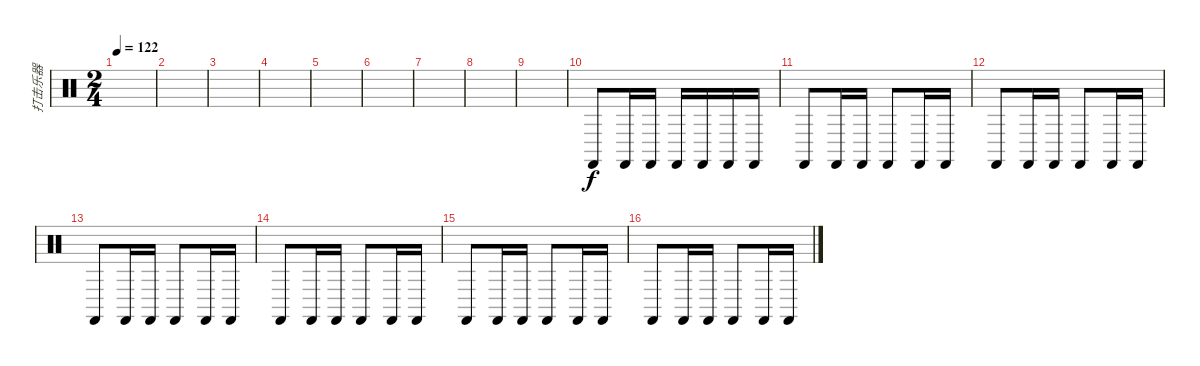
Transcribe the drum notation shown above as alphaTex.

\track ("打击乐器" "打击乐器") {instrument percussion}
\staff {score}
\articulation defaults
\ts (2 4)
\tempo 122
\clef neutral
\ks c
|
|
|
|
|
|
|
|
|
"Castanets (hit)".8 "Castanets (hit)".16 "Castanets (hit)".16 "Castanets (hit)".16 "Castanets (hit)".16 "Castanets (hit)".16 "Castanets (hit)".16 |
"Castanets (hit)".8 "Castanets (hit)".16 "Castanets (hit)".16 "Castanets (hit)".8 "Castanets (hit)".16 "Castanets (hit)".16 |
"Castanets (hit)".8 "Castanets (hit)".16 "Castanets (hit)".16 "Castanets (hit)".8 "Castanets (hit)".16 "Castanets (hit)".16 |
"Castanets (hit)".8 "Castanets (hit)".16 "Castanets (hit)".16 "Castanets (hit)".8 "Castanets (hit)".16 "Castanets (hit)".16 |
"Castanets (hit)".8 "Castanets (hit)".16 "Castanets (hit)".16 "Castanets (hit)".8 "Castanets (hit)".16 "Castanets (hit)".16 |
"Castanets (hit)".8 "Castanets (hit)".16 "Castanets (hit)".16 "Castanets (hit)".8 "Castanets (hit)".16 "Castanets (hit)".16 |
"Castanets (hit)".8 "Castanets (hit)".16 "Castanets (hit)".16 "Castanets (hit)".8 "Castanets (hit)".16 "Castanets (hit)".16
